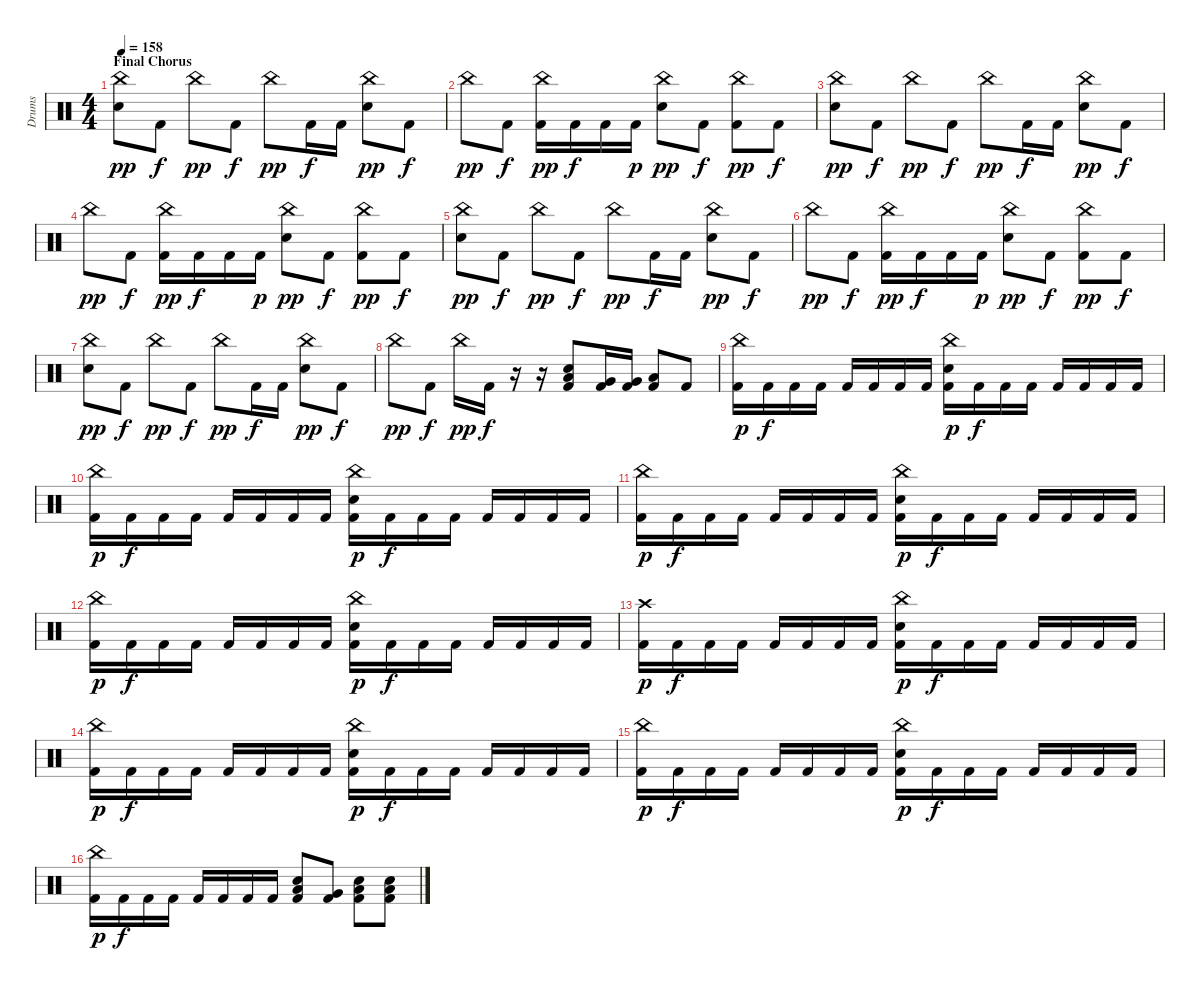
\track ("Drums" "Drums") {instrument percussion}
\staff {score}
\articulation defaults
\ts (4 4)
\section ("" "Final Chorus")
\tempo 158
\clef neutral
\ks c
("China (hit)" "Snare (hit) 2").8{dy pp} "Kick (hit) 2".8{dy f} "China (hit)".8{dy pp} "Kick (hit) 2".8{dy f} "China (hit)".8{dy pp} "Kick (hit) 2".16{dy f} "Kick (hit) 2".16 ("China (hit)" "Snare (hit) 2").8{dy pp} "Kick (hit) 2".8{dy f} |
"China (hit)".8{dy pp} "Kick (hit) 2".8{dy f} ("China (hit)" "Kick (hit) 2").16{dy pp} "Kick (hit) 2".16{dy f} "Kick (hit) 2".16 "Kick (hit) 2".16{dy p} ("China (hit)" "Snare (hit) 2").8{dy pp} "Kick (hit) 2".8{dy f} ("China (hit)" "Kick (hit) 2").8{dy pp} "Kick (hit) 2".8{dy f} |
("China (hit)" "Snare (hit) 2").8{dy pp} "Kick (hit) 2".8{dy f} "China (hit)".8{dy pp} "Kick (hit) 2".8{dy f} "China (hit)".8{dy pp} "Kick (hit) 2".16{dy f} "Kick (hit) 2".16 ("China (hit)" "Snare (hit) 2").8{dy pp} "Kick (hit) 2".8{dy f} |
"China (hit)".8{dy pp} "Kick (hit) 2".8{dy f} ("China (hit)" "Kick (hit) 2").16{dy pp} "Kick (hit) 2".16{dy f} "Kick (hit) 2".16 "Kick (hit) 2".16{dy p} ("China (hit)" "Snare (hit) 2").8{dy pp} "Kick (hit) 2".8{dy f} ("China (hit)" "Kick (hit) 2").8{dy pp} "Kick (hit) 2".8{dy f} |
("China (hit)" "Snare (hit) 2").8{dy pp} "Kick (hit) 2".8{dy f} "China (hit)".8{dy pp} "Kick (hit) 2".8{dy f} "China (hit)".8{dy pp} "Kick (hit) 2".16{dy f} "Kick (hit) 2".16 ("China (hit)" "Snare (hit) 2").8{dy pp} "Kick (hit) 2".8{dy f} |
"China (hit)".8{dy pp} "Kick (hit) 2".8{dy f} ("China (hit)" "Kick (hit) 2").16{dy pp} "Kick (hit) 2".16{dy f} "Kick (hit) 2".16 "Kick (hit) 2".16{dy p} ("China (hit)" "Snare (hit) 2").8{dy pp} "Kick (hit) 2".8{dy f} ("China (hit)" "Kick (hit) 2").8{dy pp} "Kick (hit) 2".8{dy f} |
("China (hit)" "Snare (hit) 2").8{dy pp} "Kick (hit) 2".8{dy f} "China (hit)".8{dy pp} "Kick (hit) 2".8{dy f} "China (hit)".8{dy pp} "Kick (hit) 2".16{dy f} "Kick (hit) 2".16 ("China (hit)" "Snare (hit) 2").8{dy pp} "Kick (hit) 2".8{dy f} |
"China (hit)".8{dy pp} "Kick (hit) 2".8{dy f} "China (hit)".16{dy pp} "Kick (hit) 2".16{dy f} r.16 r.16 ("Low Floor Tom (hit)" "Snare (hit) 2" "Kick (hit) 2").8 ("Very Low Tom (hit)" "Kick (hit) 2").16 ("Very Low Tom (hit)" "Kick (hit) 2").16 ("Low Floor Tom (hit)" "Kick (hit) 2").8 "Kick (hit) 2".8 |
("China (hit)" "Kick (hit) 2").16{dy p} "Kick (hit) 2".16{dy f} "Kick (hit) 2".16 "Kick (hit) 2".16 "Kick (hit) 2".16 "Kick (hit) 2".16 "Kick (hit) 2".16 "Kick (hit) 2".16 ("China (hit)" "Snare (hit) 2" "Kick (hit) 2").16{dy p} "Kick (hit) 2".16{dy f} "Kick (hit) 2".16 "Kick (hit) 2".16 "Kick (hit) 2".16 "Kick (hit) 2".16 "Kick (hit) 2".16 "Kick (hit) 2".16 |
("China (hit)" "Kick (hit) 2").16{dy p} "Kick (hit) 2".16{dy f} "Kick (hit) 2".16 "Kick (hit) 2".16 "Kick (hit) 2".16 "Kick (hit) 2".16 "Kick (hit) 2".16 "Kick (hit) 2".16 ("China (hit)" "Snare (hit) 2" "Kick (hit) 2").16{dy p} "Kick (hit) 2".16{dy f} "Kick (hit) 2".16 "Kick (hit) 2".16 "Kick (hit) 2".16 "Kick (hit) 2".16 "Kick (hit) 2".16 "Kick (hit) 2".16 |
("China (hit)" "Kick (hit) 2").16{dy p} "Kick (hit) 2".16{dy f} "Kick (hit) 2".16 "Kick (hit) 2".16 "Kick (hit) 2".16 "Kick (hit) 2".16 "Kick (hit) 2".16 "Kick (hit) 2".16 ("China (hit)" "Snare (hit) 2" "Kick (hit) 2").16{dy p} "Kick (hit) 2".16{dy f} "Kick (hit) 2".16 "Kick (hit) 2".16 "Kick (hit) 2".16 "Kick (hit) 2".16 "Kick (hit) 2".16 "Kick (hit) 2".16 |
("China (hit)" "Kick (hit) 2").16{dy p} "Kick (hit) 2".16{dy f} "Kick (hit) 2".16 "Kick (hit) 2".16 "Kick (hit) 2".16 "Kick (hit) 2".16 "Kick (hit) 2".16 "Kick (hit) 2".16 ("China (hit)" "Snare (hit) 2" "Kick (hit) 2").16{dy p} "Kick (hit) 2".16{dy f} "Kick (hit) 2".16 "Kick (hit) 2".16 "Kick (hit) 2".16 "Kick (hit) 2".16 "Kick (hit) 2".16 "Kick (hit) 2".16 |
("Crash high (hit)" "Kick (hit) 2").16{dy p} "Kick (hit) 2".16{dy f} "Kick (hit) 2".16 "Kick (hit) 2".16 "Kick (hit) 2".16 "Kick (hit) 2".16 "Kick (hit) 2".16 "Kick (hit) 2".16 ("China (hit)" "Snare (hit) 2" "Kick (hit) 2").16{dy p} "Kick (hit) 2".16{dy f} "Kick (hit) 2".16 "Kick (hit) 2".16 "Kick (hit) 2".16 "Kick (hit) 2".16 "Kick (hit) 2".16 "Kick (hit) 2".16 |
("China (hit)" "Kick (hit) 2").16{dy p} "Kick (hit) 2".16{dy f} "Kick (hit) 2".16 "Kick (hit) 2".16 "Kick (hit) 2".16 "Kick (hit) 2".16 "Kick (hit) 2".16 "Kick (hit) 2".16 ("China (hit)" "Snare (hit) 2" "Kick (hit) 2").16{dy p} "Kick (hit) 2".16{dy f} "Kick (hit) 2".16 "Kick (hit) 2".16 "Kick (hit) 2".16 "Kick (hit) 2".16 "Kick (hit) 2".16 "Kick (hit) 2".16 |
("China (hit)" "Kick (hit) 2").16{dy p} "Kick (hit) 2".16{dy f} "Kick (hit) 2".16 "Kick (hit) 2".16 "Kick (hit) 2".16 "Kick (hit) 2".16 "Kick (hit) 2".16 "Kick (hit) 2".16 ("China (hit)" "Snare (hit) 2" "Kick (hit) 2").16{dy p} "Kick (hit) 2".16{dy f} "Kick (hit) 2".16 "Kick (hit) 2".16 "Kick (hit) 2".16 "Kick (hit) 2".16 "Kick (hit) 2".16 "Kick (hit) 2".16 |
("China (hit)" "Kick (hit) 2").16{dy p} "Kick (hit) 2".16{dy f} "Kick (hit) 2".16 "Kick (hit) 2".16 "Kick (hit) 2".16 "Kick (hit) 2".16 "Kick (hit) 2".16 "Kick (hit) 2".16 ("Low Floor Tom (hit)" "Snare (hit) 2" "Kick (hit) 2").8 ("Very Low Tom (hit)" "Kick (hit) 2").8 ("Low Floor Tom (hit)" "Snare (hit) 2" "Kick (hit) 2").8 ("Low Floor Tom (hit)" "Snare (hit) 2" "Kick (hit) 2").8
